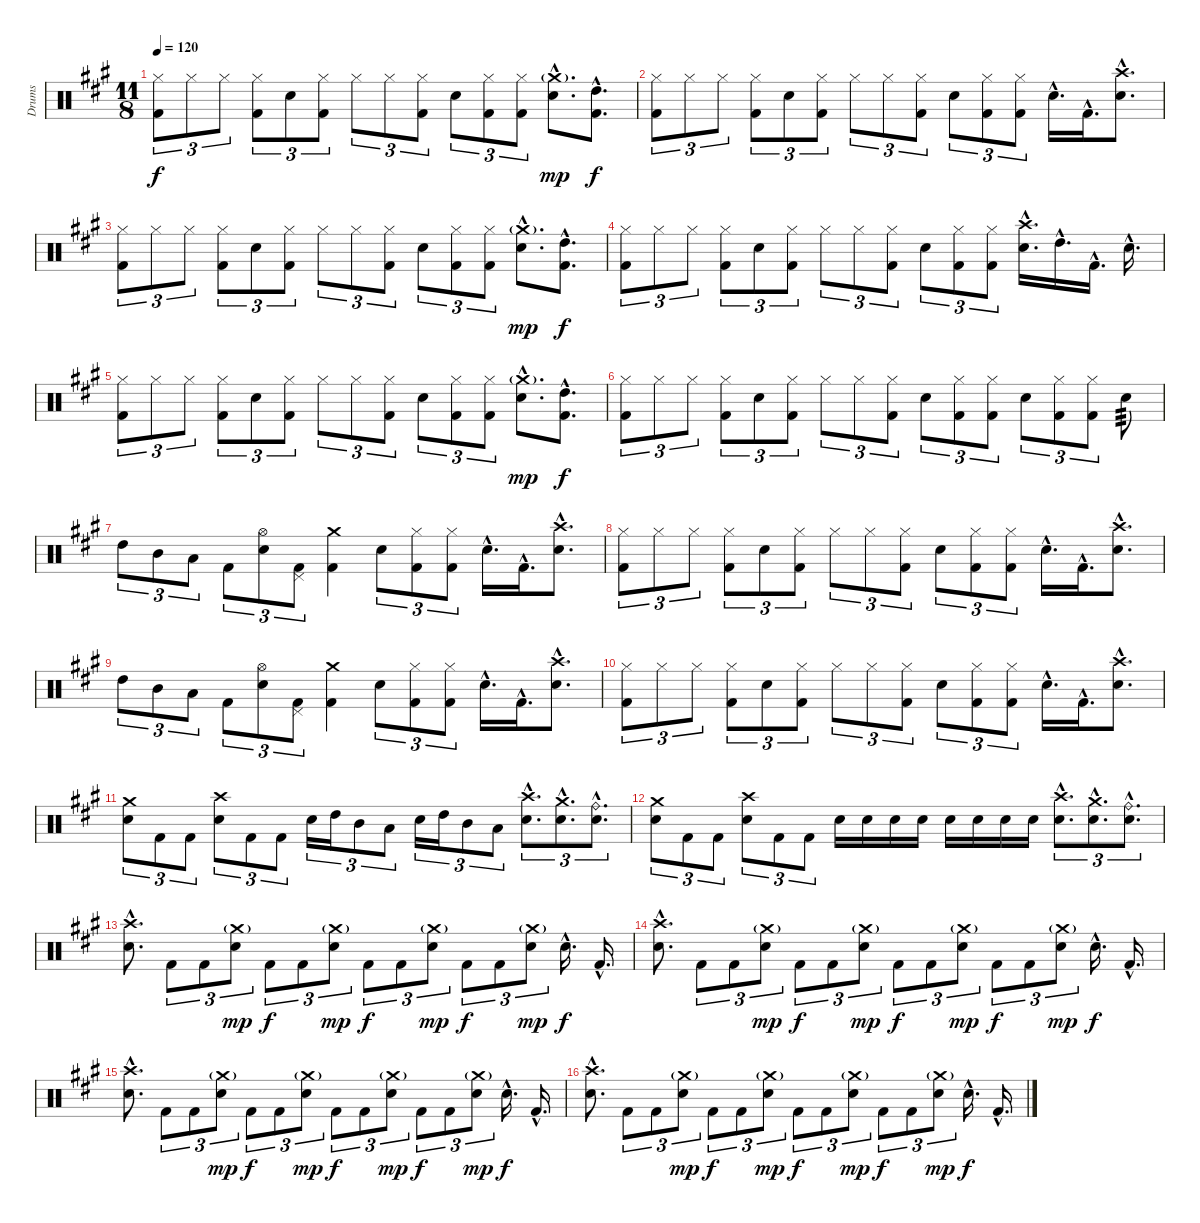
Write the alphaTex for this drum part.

\track ("Drums" "Drums") {instrument percussion}
\staff {score}
\articulation defaults
\ts (11 8)
\tempo 120
\clef neutral
\ks a
("Hi-Hat (closed)" "Kick (hit) 2").8{tu (3 2) dy f} "Hi-Hat (closed)".8{tu (3 2)} "Hi-Hat (closed)".8{tu (3 2)} ("Hi-Hat (closed)" "Kick (hit) 2").8{tu (3 2)} "Electric Snare (hit)".8{tu (3 2)} ("Hi-Hat (closed)" "Kick (hit) 2").8{tu (3 2)} "Hi-Hat (closed)".8{tu (3 2)} "Hi-Hat (closed)".8{tu (3 2)} ("Hi-Hat (closed)" "Kick (hit) 2").8{tu (3 2)} "Electric Snare (hit)".8{tu (3 2)} ("Hi-Hat (closed)" "Kick (hit) 2").8{tu (3 2)} ("Hi-Hat (closed)" "Kick (hit) 2").8{tu (3 2)} ("Crash medium (hit)"{g hac} "Electric Snare (hit)"{hac}).8{d dy mp} ("High Tom (hit)"{hac} "Kick (hit) 2"{hac}).8{d dy f} |
("Hi-Hat (closed)" "Kick (hit) 2").8{tu (3 2)} "Hi-Hat (closed)".8{tu (3 2)} "Hi-Hat (closed)".8{tu (3 2)} ("Hi-Hat (closed)" "Kick (hit) 2").8{tu (3 2)} "Electric Snare (hit)".8{tu (3 2)} ("Hi-Hat (closed)" "Kick (hit) 2").8{tu (3 2)} "Hi-Hat (closed)".8{tu (3 2)} "Hi-Hat (closed)".8{tu (3 2)} ("Hi-Hat (closed)" "Kick (hit) 2").8{tu (3 2)} "Electric Snare (hit)".8{tu (3 2)} ("Hi-Hat (closed)" "Kick (hit) 2").8{tu (3 2)} ("Hi-Hat (closed)" "Kick (hit) 2").8{tu (3 2)} "Electric Snare (hit)"{hac}.16{d} "Kick (hit) 2"{hac}.16{d} ("Crash high (hit)"{hac} "Electric Snare (hit)"{hac}).8{d} |
("Hi-Hat (closed)" "Kick (hit) 2").8{tu (3 2)} "Hi-Hat (closed)".8{tu (3 2)} "Hi-Hat (closed)".8{tu (3 2)} ("Hi-Hat (closed)" "Kick (hit) 2").8{tu (3 2)} "Electric Snare (hit)".8{tu (3 2)} ("Hi-Hat (closed)" "Kick (hit) 2").8{tu (3 2)} "Hi-Hat (closed)".8{tu (3 2)} "Hi-Hat (closed)".8{tu (3 2)} ("Hi-Hat (closed)" "Kick (hit) 2").8{tu (3 2)} "Electric Snare (hit)".8{tu (3 2)} ("Hi-Hat (closed)" "Kick (hit) 2").8{tu (3 2)} ("Hi-Hat (closed)" "Kick (hit) 2").8{tu (3 2)} ("Crash medium (hit)"{g hac} "Electric Snare (hit)"{hac}).8{d dy mp} ("High Tom (hit)"{hac} "Kick (hit) 2"{hac}).8{d dy f} |
("Hi-Hat (closed)" "Kick (hit) 2").8{tu (3 2)} "Hi-Hat (closed)".8{tu (3 2)} "Hi-Hat (closed)".8{tu (3 2)} ("Hi-Hat (closed)" "Kick (hit) 2").8{tu (3 2)} "Electric Snare (hit)".8{tu (3 2)} ("Hi-Hat (closed)" "Kick (hit) 2").8{tu (3 2)} "Hi-Hat (closed)".8{tu (3 2)} "Hi-Hat (closed)".8{tu (3 2)} ("Hi-Hat (closed)" "Kick (hit) 2").8{tu (3 2)} "Electric Snare (hit)".8{tu (3 2)} ("Hi-Hat (closed)" "Kick (hit) 2").8{tu (3 2)} ("Hi-Hat (closed)" "Kick (hit) 2").8{tu (3 2)} ("Crash high (hit)"{hac} "Electric Snare (hit)"{hac}).16{d} "High Tom (hit)"{hac}.16{d} "Kick (hit) 2"{hac}.16{d} "Electric Snare (hit)"{hac}.16{d} |
("Hi-Hat (closed)" "Kick (hit) 2").8{tu (3 2)} "Hi-Hat (closed)".8{tu (3 2)} "Hi-Hat (closed)".8{tu (3 2)} ("Hi-Hat (closed)" "Kick (hit) 2").8{tu (3 2)} "Electric Snare (hit)".8{tu (3 2)} ("Hi-Hat (closed)" "Kick (hit) 2").8{tu (3 2)} "Hi-Hat (closed)".8{tu (3 2)} "Hi-Hat (closed)".8{tu (3 2)} ("Hi-Hat (closed)" "Kick (hit) 2").8{tu (3 2)} "Electric Snare (hit)".8{tu (3 2)} ("Hi-Hat (closed)" "Kick (hit) 2").8{tu (3 2)} ("Hi-Hat (closed)" "Kick (hit) 2").8{tu (3 2)} ("Crash medium (hit)"{g hac} "Electric Snare (hit)"{hac}).8{d dy mp} ("High Tom (hit)"{hac} "Kick (hit) 2"{hac}).8{d dy f} |
("Hi-Hat (closed)" "Kick (hit) 2").8{tu (3 2)} "Hi-Hat (closed)".8{tu (3 2)} "Hi-Hat (closed)".8{tu (3 2)} ("Hi-Hat (closed)" "Kick (hit) 2").8{tu (3 2)} "Electric Snare (hit)".8{tu (3 2)} ("Hi-Hat (closed)" "Kick (hit) 2").8{tu (3 2)} "Hi-Hat (closed)".8{tu (3 2)} "Hi-Hat (closed)".8{tu (3 2)} ("Hi-Hat (closed)" "Kick (hit) 2").8{tu (3 2)} "Electric Snare (hit)".8{tu (3 2)} ("Hi-Hat (closed)" "Kick (hit) 2").8{tu (3 2)} ("Hi-Hat (closed)" "Kick (hit) 2").8{tu (3 2)} "Electric Snare (hit)".8{tu (3 2)} ("Hi-Hat (closed)" "Kick (hit) 2").8{tu (3 2)} ("Hi-Hat (closed)" "Kick (hit) 2").8{tu (3 2)} "Electric Snare (hit)".8{tp 3} |
"High Tom (hit)".8{tu (3 2)} "Mid Tom (hit)".8{tu (3 2)} "Low Tom (hit)".8{tu (3 2)} "Kick (hit) 2".8{tu (3 2)} ("Hi-Hat (open)" "Electric Snare (hit)").8{tu (3 2)} ("Pedal Hi-Hat (hit)" "Kick (hit) 2").8{tu (3 2)} ("Crash medium (hit)" "Kick (hit) 2").4 "Electric Snare (hit)".8{tu (3 2)} ("Hi-Hat (closed)" "Kick (hit) 2").8{tu (3 2)} ("Hi-Hat (closed)" "Kick (hit) 2").8{tu (3 2)} "Electric Snare (hit)"{hac}.16{d} "Kick (hit) 2"{hac}.16{d} ("Crash high (hit)"{hac} "Electric Snare (hit)"{hac}).8{d} |
("Hi-Hat (closed)" "Kick (hit) 2").8{tu (3 2)} "Hi-Hat (closed)".8{tu (3 2)} "Hi-Hat (closed)".8{tu (3 2)} ("Hi-Hat (closed)" "Kick (hit) 2").8{tu (3 2)} "Electric Snare (hit)".8{tu (3 2)} ("Hi-Hat (closed)" "Kick (hit) 2").8{tu (3 2)} "Hi-Hat (closed)".8{tu (3 2)} "Hi-Hat (closed)".8{tu (3 2)} ("Hi-Hat (closed)" "Kick (hit) 2").8{tu (3 2)} "Electric Snare (hit)".8{tu (3 2)} ("Hi-Hat (closed)" "Kick (hit) 2").8{tu (3 2)} ("Hi-Hat (closed)" "Kick (hit) 2").8{tu (3 2)} "Electric Snare (hit)"{hac}.16{d} "Kick (hit) 2"{hac}.16{d} ("Crash high (hit)"{hac} "Electric Snare (hit)"{hac}).8{d} |
"High Tom (hit)".8{tu (3 2)} "Mid Tom (hit)".8{tu (3 2)} "Low Tom (hit)".8{tu (3 2)} "Kick (hit) 2".8{tu (3 2)} ("Hi-Hat (open)" "Electric Snare (hit)").8{tu (3 2)} ("Pedal Hi-Hat (hit)" "Kick (hit) 2").8{tu (3 2)} ("Crash medium (hit)" "Kick (hit) 2").4 "Electric Snare (hit)".8{tu (3 2)} ("Hi-Hat (closed)" "Kick (hit) 2").8{tu (3 2)} ("Hi-Hat (closed)" "Kick (hit) 2").8{tu (3 2)} "Electric Snare (hit)"{hac}.16{d} "Kick (hit) 2"{hac}.16{d} ("Crash high (hit)"{hac} "Electric Snare (hit)"{hac}).8{d} |
("Hi-Hat (closed)" "Kick (hit) 2").8{tu (3 2)} "Hi-Hat (closed)".8{tu (3 2)} "Hi-Hat (closed)".8{tu (3 2)} ("Hi-Hat (closed)" "Kick (hit) 2").8{tu (3 2)} "Electric Snare (hit)".8{tu (3 2)} ("Hi-Hat (closed)" "Kick (hit) 2").8{tu (3 2)} "Hi-Hat (closed)".8{tu (3 2)} "Hi-Hat (closed)".8{tu (3 2)} ("Hi-Hat (closed)" "Kick (hit) 2").8{tu (3 2)} "Electric Snare (hit)".8{tu (3 2)} ("Hi-Hat (closed)" "Kick (hit) 2").8{tu (3 2)} ("Hi-Hat (closed)" "Kick (hit) 2").8{tu (3 2)} "Electric Snare (hit)"{hac}.16{d} "Kick (hit) 2"{hac}.16{d} ("Crash high (hit)"{hac} "Electric Snare (hit)"{hac}).8{d} |
("Crash medium (hit)" "Electric Snare (hit)").8{tu (3 2)} "Kick (hit) 2".8{tu (3 2)} "Kick (hit) 2".8{tu (3 2)} ("Crash high (hit)" "Electric Snare (hit)").8{tu (3 2)} "Kick (hit) 2".8{tu (3 2)} "Kick (hit) 2".8{tu (3 2)} "Electric Snare (hit)".16{tu (3 2)} "High Tom (hit)".16{tu (3 2)} "Mid Tom (hit)".8{tu (3 2)} "Low Tom (hit)".8{tu (3 2)} "Electric Snare (hit)".16{tu (3 2)} "High Tom (hit)".16{tu (3 2)} "Mid Tom (hit)".8{tu (3 2)} "Low Tom (hit)".8{tu (3 2)} ("Crash high (hit)"{hac} "Electric Snare (hit)"{hac}).8{d tu (3 2)} ("Crash medium (hit)"{hac} "Electric Snare (hit)"{hac}).8{d tu (3 2)} ("Ride (bell)"{hac} "Electric Snare (hit)"{hac}).8{d tu (3 2)} |
("Crash medium (hit)" "Electric Snare (hit)").8{tu (3 2)} "Kick (hit) 2".8{tu (3 2)} "Kick (hit) 2".8{tu (3 2)} ("Crash high (hit)" "Electric Snare (hit)").8{tu (3 2)} "Kick (hit) 2".8{tu (3 2)} "Kick (hit) 2".8{tu (3 2)} "Electric Snare (hit)".16 "Electric Snare (hit)".16 "Electric Snare (hit)".16 "Electric Snare (hit)".16 "Electric Snare (hit)".16 "Electric Snare (hit)".16 "Electric Snare (hit)".16 "Electric Snare (hit)".16 ("Crash high (hit)"{hac} "Electric Snare (hit)"{hac}).8{d tu (3 2)} ("Crash medium (hit)"{hac} "Electric Snare (hit)"{hac}).8{d tu (3 2)} ("Ride (bell)"{hac} "Electric Snare (hit)"{hac}).8{d tu (3 2)} |
("Crash high (hit)"{hac} "Electric Snare (hit)"{hac}).8{d} "Kick (hit) 2".8{tu (3 2)} "Kick (hit) 2".8{tu (3 2)} ("Crash medium (hit)"{g} "Electric Snare (hit)").8{tu (3 2) dy mp} "Kick (hit) 2".8{tu (3 2) dy f} "Kick (hit) 2".8{tu (3 2)} ("Crash medium (hit)"{g} "Electric Snare (hit)").8{tu (3 2) dy mp} "Kick (hit) 2".8{tu (3 2) dy f} "Kick (hit) 2".8{tu (3 2)} ("Crash medium (hit)"{g} "Electric Snare (hit)").8{tu (3 2) dy mp} "Kick (hit) 2".8{tu (3 2) dy f} "Kick (hit) 2".8{tu (3 2)} ("Crash medium (hit)"{g} "Electric Snare (hit)").8{tu (3 2) dy mp} "Electric Snare (hit)"{hac}.16{d dy f} "Kick (hit) 2"{hac}.16{d} |
("Crash high (hit)"{hac} "Electric Snare (hit)"{hac}).8{d} "Kick (hit) 2".8{tu (3 2)} "Kick (hit) 2".8{tu (3 2)} ("Crash medium (hit)"{g} "Electric Snare (hit)").8{tu (3 2) dy mp} "Kick (hit) 2".8{tu (3 2) dy f} "Kick (hit) 2".8{tu (3 2)} ("Crash medium (hit)"{g} "Electric Snare (hit)").8{tu (3 2) dy mp} "Kick (hit) 2".8{tu (3 2) dy f} "Kick (hit) 2".8{tu (3 2)} ("Crash medium (hit)"{g} "Electric Snare (hit)").8{tu (3 2) dy mp} "Kick (hit) 2".8{tu (3 2) dy f} "Kick (hit) 2".8{tu (3 2)} ("Crash medium (hit)"{g} "Electric Snare (hit)").8{tu (3 2) dy mp} "Electric Snare (hit)"{hac}.16{d dy f} "Kick (hit) 2"{hac}.16{d} |
("Crash high (hit)"{hac} "Electric Snare (hit)"{hac}).8{d} "Kick (hit) 2".8{tu (3 2)} "Kick (hit) 2".8{tu (3 2)} ("Crash medium (hit)"{g} "Electric Snare (hit)").8{tu (3 2) dy mp} "Kick (hit) 2".8{tu (3 2) dy f} "Kick (hit) 2".8{tu (3 2)} ("Crash medium (hit)"{g} "Electric Snare (hit)").8{tu (3 2) dy mp} "Kick (hit) 2".8{tu (3 2) dy f} "Kick (hit) 2".8{tu (3 2)} ("Crash medium (hit)"{g} "Electric Snare (hit)").8{tu (3 2) dy mp} "Kick (hit) 2".8{tu (3 2) dy f} "Kick (hit) 2".8{tu (3 2)} ("Crash medium (hit)"{g} "Electric Snare (hit)").8{tu (3 2) dy mp} "Electric Snare (hit)"{hac}.16{d dy f} "Kick (hit) 2"{hac}.16{d} |
("Crash high (hit)"{hac} "Electric Snare (hit)"{hac}).8{d} "Kick (hit) 2".8{tu (3 2)} "Kick (hit) 2".8{tu (3 2)} ("Crash medium (hit)"{g} "Electric Snare (hit)").8{tu (3 2) dy mp} "Kick (hit) 2".8{tu (3 2) dy f} "Kick (hit) 2".8{tu (3 2)} ("Crash medium (hit)"{g} "Electric Snare (hit)").8{tu (3 2) dy mp} "Kick (hit) 2".8{tu (3 2) dy f} "Kick (hit) 2".8{tu (3 2)} ("Crash medium (hit)"{g} "Electric Snare (hit)").8{tu (3 2) dy mp} "Kick (hit) 2".8{tu (3 2) dy f} "Kick (hit) 2".8{tu (3 2)} ("Crash medium (hit)"{g} "Electric Snare (hit)").8{tu (3 2) dy mp} "Electric Snare (hit)"{hac}.16{d dy f} "Kick (hit) 2"{hac}.16{d}
